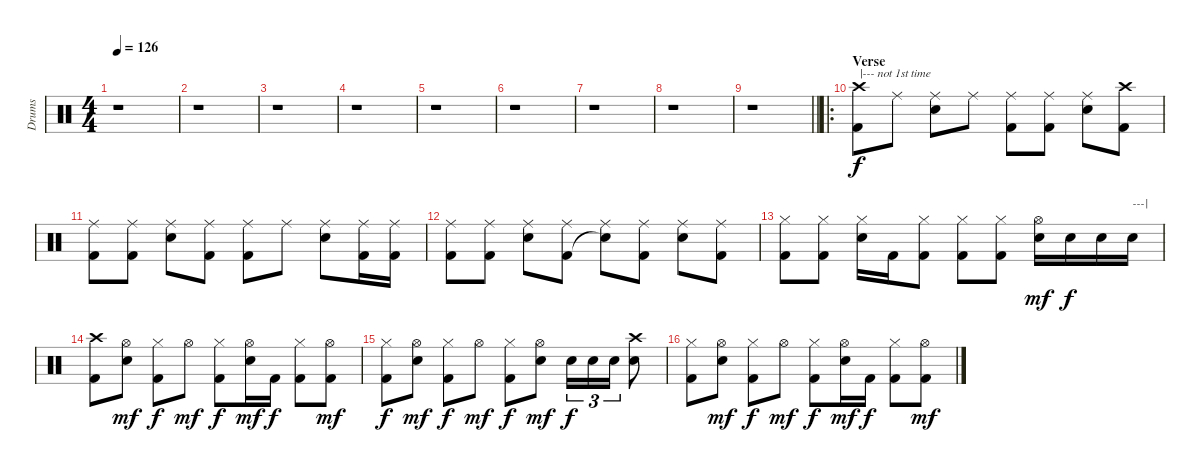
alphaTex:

\track ("Drums" "Drums") {instrument percussion}
\staff {score}
\articulation defaults
\ts (4 4)
\tempo 126
\clef neutral
\ks c
r.1{dy f} |
r.1 |
r.1 |
r.1 |
r.1 |
r.1 |
r.1 |
r.1 |
\barLineRight lightlight
r.1 |
\ro
\section ("" "Verse")
("Crash high (hit)" "Kick (hit) 2").8{txt "|--- not 1st time"} "Ride (middle)".8 ("Ride (middle)" "Electric Snare (hit)").8 "Ride (middle)".8 ("Ride (middle)" "Kick (hit) 2").8 ("Ride (middle)" "Kick (hit) 2").8 ("Ride (middle)" "Electric Snare (hit)").8 ("Crash high (hit)" "Kick (hit) 2").8 |
("Ride (middle)" "Kick (hit) 2").8 ("Ride (middle)" "Kick (hit) 2").8 ("Ride (middle)" "Electric Snare (hit)").8 ("Ride (middle)" "Kick (hit) 2").8 ("Ride (middle)" "Kick (hit) 2").8 "Ride (middle)".8 ("Ride (middle)" "Electric Snare (hit)").8 ("Ride (middle)" "Kick (hit) 2").16 ("Ride (middle)" "Kick (hit) 2").16 |
("Ride (middle)" "Kick (hit) 2").8 ("Ride (middle)" "Kick (hit) 2").8 ("Ride (middle)" "Electric Snare (hit)").8 ("Ride (middle)" "Kick (hit) 2").8 ("Ride (middle)" "Snare (hit)"{t}).8 ("Ride (middle)" "Kick (hit) 2").8 ("Ride (middle)" "Electric Snare (hit)").8 ("Ride (middle)" "Kick (hit) 2").8 |
("Hi-Hat (closed)" "Kick (hit) 2").8 ("Hi-Hat (closed)" "Kick (hit) 2").8 ("Hi-Hat (closed)" "Electric Snare (hit)").16 "Kick (hit) 2".16 ("Hi-Hat (closed)" "Kick (hit) 2").8 ("Hi-Hat (closed)" "Kick (hit) 2").8 ("Hi-Hat (closed)" "Kick (hit) 2").8 ("Hi-Hat (open)" "Electric Snare (hit)").16{dy mf} "Electric Snare (hit)".16{dy f} "Electric Snare (hit)".16 "Electric Snare (hit)".16{txt "---|"} |
("Crash high (hit)" "Kick (hit) 2").8 ("Hi-Hat (open)" "Electric Snare (hit)").8{dy mf} ("Hi-Hat (closed)" "Kick (hit) 2").8{dy f} "Hi-Hat (open)".8{dy mf} ("Hi-Hat (closed)" "Kick (hit) 2").8{dy f} ("Hi-Hat (open)" "Electric Snare (hit)").16{dy mf} "Kick (hit) 2".16{dy f} ("Hi-Hat (closed)" "Kick (hit) 2").8 ("Hi-Hat (open)" "Kick (hit) 2").8{dy mf} |
("Hi-Hat (closed)" "Kick (hit) 2").8{dy f} ("Hi-Hat (open)" "Electric Snare (hit)").8{dy mf} ("Hi-Hat (closed)" "Kick (hit) 2").8{dy f} "Hi-Hat (open)".8{dy mf} ("Hi-Hat (closed)" "Kick (hit) 2").8{dy f} ("Hi-Hat (open)" "Electric Snare (hit)").8{dy mf} "Electric Snare (hit)".16{tu (3 2) dy f} "Electric Snare (hit)".16{tu (3 2)} "Electric Snare (hit)".16{tu (3 2)} ("Crash high (hit)" "Electric Snare (hit)").8 |
("Hi-Hat (closed)" "Kick (hit) 2").8 ("Hi-Hat (open)" "Electric Snare (hit)").8{dy mf} ("Hi-Hat (closed)" "Kick (hit) 2").8{dy f} "Hi-Hat (open)".8{dy mf} ("Hi-Hat (closed)" "Kick (hit) 2").8{dy f} ("Hi-Hat (open)" "Electric Snare (hit)").16{dy mf} "Kick (hit) 2".16{dy f} ("Hi-Hat (closed)" "Kick (hit) 2").8 ("Hi-Hat (open)" "Kick (hit) 2").8{dy mf}
